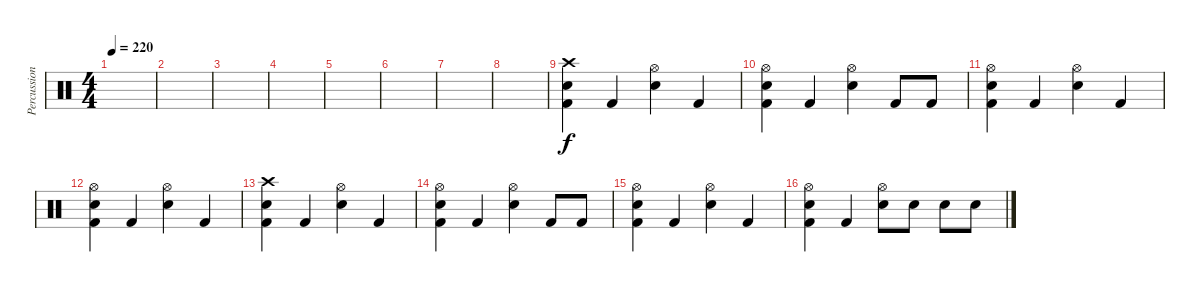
\track ("Percussion" "Percussion") {instrument percussion}
\staff {score}
\articulation defaults
\ts (4 4)
\tempo 220
\clef neutral
\ks c
|
|
|
|
|
|
|
|
("Crash high (hit)" "Electric Snare (hit)" "Kick (hit) 2").4 "Kick (hit) 2".4 ("Hi-Hat (open)" "Electric Snare (hit)").4 "Kick (hit) 2".4 |
("Hi-Hat (open)" "Electric Snare (hit)" "Kick (hit) 2").4 "Kick (hit) 2".4 ("Hi-Hat (open)" "Electric Snare (hit)").4 "Kick (hit) 2".8 "Kick (hit) 2".8 |
("Hi-Hat (open)" "Electric Snare (hit)" "Kick (hit) 2").4 "Kick (hit) 2".4 ("Hi-Hat (open)" "Electric Snare (hit)").4 "Kick (hit) 2".4 |
("Hi-Hat (open)" "Electric Snare (hit)" "Kick (hit) 2").4 "Kick (hit) 2".4 ("Hi-Hat (open)" "Electric Snare (hit)").4 "Kick (hit) 2".4 |
("Crash high (hit)" "Electric Snare (hit)" "Kick (hit) 2").4 "Kick (hit) 2".4 ("Hi-Hat (open)" "Electric Snare (hit)").4 "Kick (hit) 2".4 |
("Hi-Hat (open)" "Electric Snare (hit)" "Kick (hit) 2").4 "Kick (hit) 2".4 ("Hi-Hat (open)" "Electric Snare (hit)").4 "Kick (hit) 2".8 "Kick (hit) 2".8 |
("Hi-Hat (open)" "Electric Snare (hit)" "Kick (hit) 2").4 "Kick (hit) 2".4 ("Hi-Hat (open)" "Electric Snare (hit)").4 "Kick (hit) 2".4 |
("Hi-Hat (open)" "Electric Snare (hit)" "Kick (hit) 2").4 "Kick (hit) 2".4 ("Hi-Hat (open)" "Electric Snare (hit)").8 "Electric Snare (hit)".8 "Electric Snare (hit)".8 "Electric Snare (hit)".8
